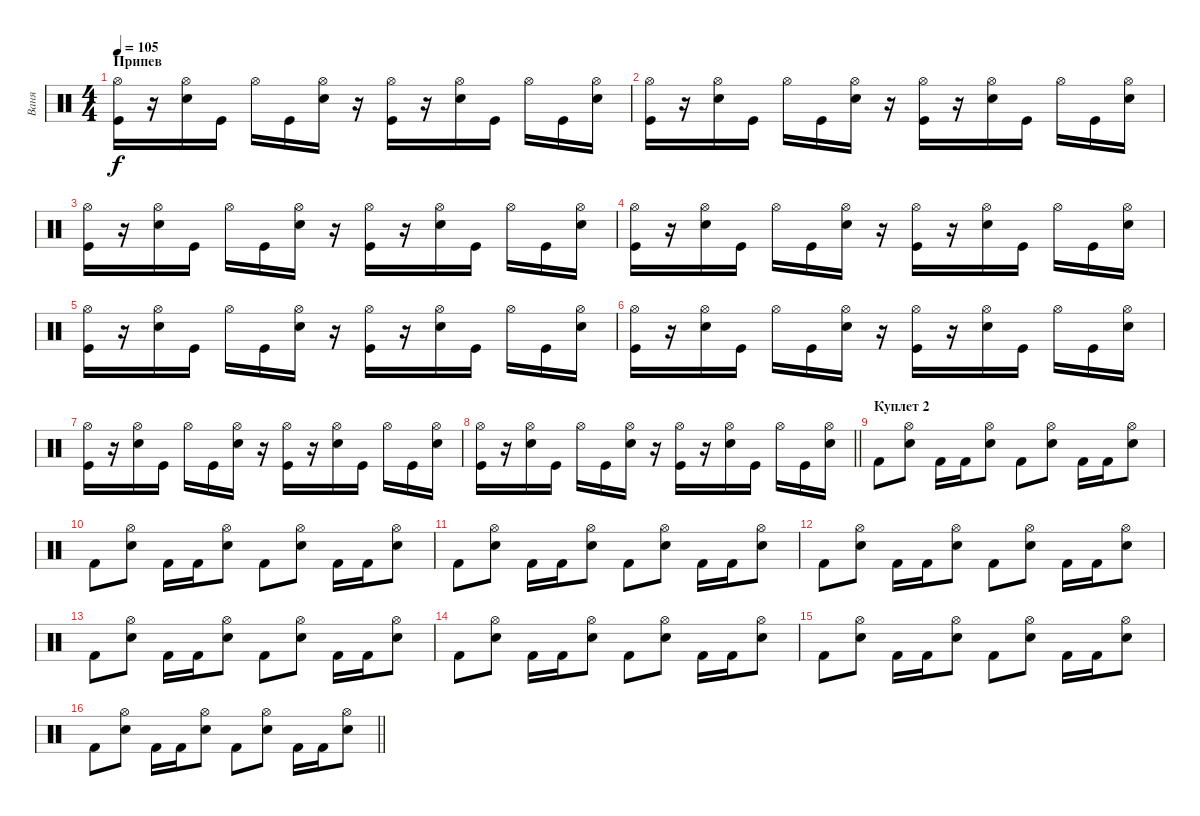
\track ("Ваня" "Ваня") {instrument percussion}
\staff {score}
\articulation defaults
\ts (4 4)
\section ("" "Припев")
\tempo 105
\clef neutral
\ks c
("Hi-Hat (open)" "Kick (hit)").16{dy f} r.16 ("Hi-Hat (open)" "Snare (hit) 2").16 "Kick (hit)".16 "Hi-Hat (open)".16 "Kick (hit)".16 ("Hi-Hat (open)" "Snare (hit) 2").16 r.16 ("Hi-Hat (open)" "Kick (hit)").16 r.16 ("Hi-Hat (open)" "Snare (hit) 2").16 "Kick (hit)".16 "Hi-Hat (open)".16 "Kick (hit)".16 ("Hi-Hat (open)" "Snare (hit) 2").16 |
("Hi-Hat (open)" "Kick (hit)").16 r.16 ("Hi-Hat (open)" "Snare (hit) 2").16 "Kick (hit)".16 "Hi-Hat (open)".16 "Kick (hit)".16 ("Hi-Hat (open)" "Snare (hit) 2").16 r.16 ("Hi-Hat (open)" "Kick (hit)").16 r.16 ("Hi-Hat (open)" "Snare (hit) 2").16 "Kick (hit)".16 "Hi-Hat (open)".16 "Kick (hit)".16 ("Hi-Hat (open)" "Snare (hit) 2").16 |
("Hi-Hat (open)" "Kick (hit)").16 r.16 ("Hi-Hat (open)" "Snare (hit) 2").16 "Kick (hit)".16 "Hi-Hat (open)".16 "Kick (hit)".16 ("Hi-Hat (open)" "Snare (hit) 2").16 r.16 ("Hi-Hat (open)" "Kick (hit)").16 r.16 ("Hi-Hat (open)" "Snare (hit) 2").16 "Kick (hit)".16 "Hi-Hat (open)".16 "Kick (hit)".16 ("Hi-Hat (open)" "Snare (hit) 2").16 |
("Hi-Hat (open)" "Kick (hit)").16 r.16 ("Hi-Hat (open)" "Snare (hit) 2").16 "Kick (hit)".16 "Hi-Hat (open)".16 "Kick (hit)".16 ("Hi-Hat (open)" "Snare (hit) 2").16 r.16 ("Hi-Hat (open)" "Kick (hit)").16 r.16 ("Hi-Hat (open)" "Snare (hit) 2").16 "Kick (hit)".16 "Hi-Hat (open)".16 "Kick (hit)".16 ("Hi-Hat (open)" "Snare (hit) 2").16 |
("Hi-Hat (open)" "Kick (hit)").16 r.16 ("Hi-Hat (open)" "Snare (hit) 2").16 "Kick (hit)".16 "Hi-Hat (open)".16 "Kick (hit)".16 ("Hi-Hat (open)" "Snare (hit) 2").16 r.16 ("Hi-Hat (open)" "Kick (hit)").16 r.16 ("Hi-Hat (open)" "Snare (hit) 2").16 "Kick (hit)".16 "Hi-Hat (open)".16 "Kick (hit)".16 ("Hi-Hat (open)" "Snare (hit) 2").16 |
("Hi-Hat (open)" "Kick (hit)").16 r.16 ("Hi-Hat (open)" "Snare (hit) 2").16 "Kick (hit)".16 "Hi-Hat (open)".16 "Kick (hit)".16 ("Hi-Hat (open)" "Snare (hit) 2").16 r.16 ("Hi-Hat (open)" "Kick (hit)").16 r.16 ("Hi-Hat (open)" "Snare (hit) 2").16 "Kick (hit)".16 "Hi-Hat (open)".16 "Kick (hit)".16 ("Hi-Hat (open)" "Snare (hit) 2").16 |
("Hi-Hat (open)" "Kick (hit)").16 r.16 ("Hi-Hat (open)" "Snare (hit) 2").16 "Kick (hit)".16 "Hi-Hat (open)".16 "Kick (hit)".16 ("Hi-Hat (open)" "Snare (hit) 2").16 r.16 ("Hi-Hat (open)" "Kick (hit)").16 r.16 ("Hi-Hat (open)" "Snare (hit) 2").16 "Kick (hit)".16 "Hi-Hat (open)".16 "Kick (hit)".16 ("Hi-Hat (open)" "Snare (hit) 2").16 |
\barLineRight lightlight
("Hi-Hat (open)" "Kick (hit)").16 r.16 ("Hi-Hat (open)" "Snare (hit) 2").16 "Kick (hit)".16 "Hi-Hat (open)".16 "Kick (hit)".16 ("Hi-Hat (open)" "Snare (hit) 2").16 r.16 ("Hi-Hat (open)" "Kick (hit)").16 r.16 ("Hi-Hat (open)" "Snare (hit) 2").16 "Kick (hit)".16 "Hi-Hat (open)".16 "Kick (hit)".16 ("Hi-Hat (open)" "Snare (hit) 2").16 |
\section ("" "Куплет 2")
"Kick (hit) 2".8 ("Hi-Hat (open)" "Snare (hit) 2").8 "Kick (hit) 2".16 "Kick (hit) 2".16 ("Hi-Hat (open)" "Snare (hit) 2").8 "Kick (hit) 2".8 ("Hi-Hat (open)" "Snare (hit) 2").8 "Kick (hit) 2".16 "Kick (hit) 2".16 ("Hi-Hat (open)" "Snare (hit) 2").8 |
"Kick (hit) 2".8 ("Hi-Hat (open)" "Snare (hit) 2").8 "Kick (hit) 2".16 "Kick (hit) 2".16 ("Hi-Hat (open)" "Snare (hit) 2").8 "Kick (hit) 2".8 ("Hi-Hat (open)" "Snare (hit) 2").8 "Kick (hit) 2".16 "Kick (hit) 2".16 ("Hi-Hat (open)" "Snare (hit) 2").8 |
"Kick (hit) 2".8 ("Hi-Hat (open)" "Snare (hit) 2").8 "Kick (hit) 2".16 "Kick (hit) 2".16 ("Hi-Hat (open)" "Snare (hit) 2").8 "Kick (hit) 2".8 ("Hi-Hat (open)" "Snare (hit) 2").8 "Kick (hit) 2".16 "Kick (hit) 2".16 ("Hi-Hat (open)" "Snare (hit) 2").8 |
"Kick (hit) 2".8 ("Hi-Hat (open)" "Snare (hit) 2").8 "Kick (hit) 2".16 "Kick (hit) 2".16 ("Hi-Hat (open)" "Snare (hit) 2").8 "Kick (hit) 2".8 ("Hi-Hat (open)" "Snare (hit) 2").8 "Kick (hit) 2".16 "Kick (hit) 2".16 ("Hi-Hat (open)" "Snare (hit) 2").8 |
"Kick (hit) 2".8 ("Hi-Hat (open)" "Snare (hit) 2").8 "Kick (hit) 2".16 "Kick (hit) 2".16 ("Hi-Hat (open)" "Snare (hit) 2").8 "Kick (hit) 2".8 ("Hi-Hat (open)" "Snare (hit) 2").8 "Kick (hit) 2".16 "Kick (hit) 2".16 ("Hi-Hat (open)" "Snare (hit) 2").8 |
"Kick (hit) 2".8 ("Hi-Hat (open)" "Snare (hit) 2").8 "Kick (hit) 2".16 "Kick (hit) 2".16 ("Hi-Hat (open)" "Snare (hit) 2").8 "Kick (hit) 2".8 ("Hi-Hat (open)" "Snare (hit) 2").8 "Kick (hit) 2".16 "Kick (hit) 2".16 ("Hi-Hat (open)" "Snare (hit) 2").8 |
"Kick (hit) 2".8 ("Hi-Hat (open)" "Snare (hit) 2").8 "Kick (hit) 2".16 "Kick (hit) 2".16 ("Hi-Hat (open)" "Snare (hit) 2").8 "Kick (hit) 2".8 ("Hi-Hat (open)" "Snare (hit) 2").8 "Kick (hit) 2".16 "Kick (hit) 2".16 ("Hi-Hat (open)" "Snare (hit) 2").8 |
\barLineRight lightlight "Kick (hit) 2".8
("Hi-Hat (open)" "Snare (hit) 2").8 "Kick (hit) 2".16 "Kick (hit) 2".16 ("Hi-Hat (open)" "Snare (hit) 2").8 "Kick (hit) 2".8 ("Hi-Hat (open)" "Snare (hit) 2").8 "Kick (hit) 2".16 "Kick (hit) 2".16 ("Hi-Hat (open)" "Snare (hit) 2").8
